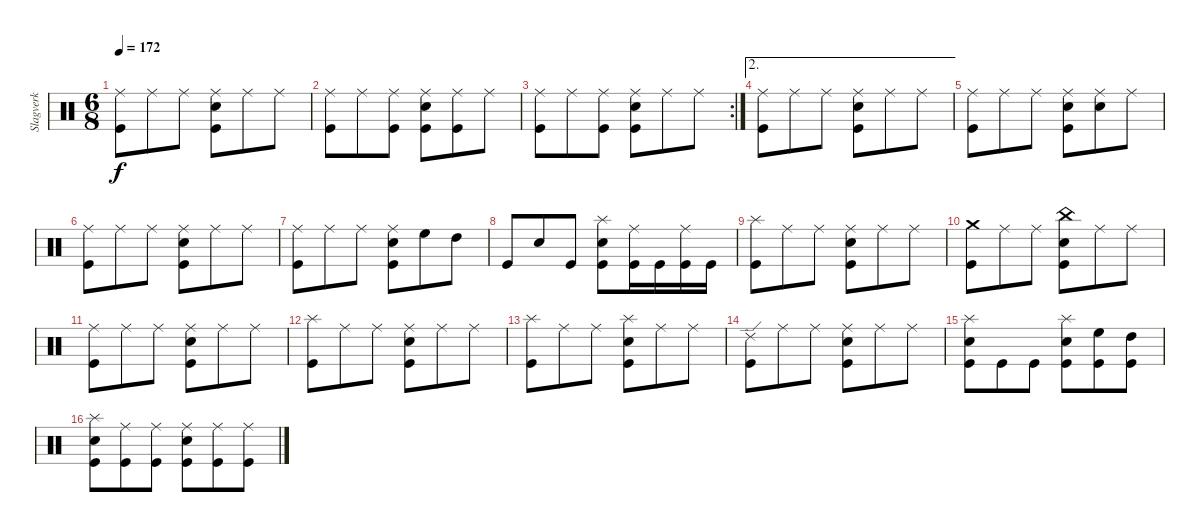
\track ("Slagverk" "Slagverk") {instrument percussion}
\staff {score}
\articulation defaults
\ts (6 8)
\tempo 172
\clef neutral
\ks c
("Ride (middle)" "Kick (hit)").8{dy f} "Ride (middle)".8 "Ride (middle)".8 ("Ride (middle)" "Snare (hit) 2" "Kick (hit)").8 "Ride (middle)".8 "Ride (middle)".8 |
("Ride (middle)" "Kick (hit)").8 "Ride (middle)".8 ("Ride (middle)" "Kick (hit)").8 ("Ride (middle)" "Snare (hit) 2" "Kick (hit)").8 ("Ride (middle)" "Kick (hit)").8 "Ride (middle)".8 |
\rc 2
("Ride (middle)" "Kick (hit)").8 "Ride (middle)".8 ("Ride (middle)" "Kick (hit)").8 ("Ride (middle)" "Snare (hit) 2" "Kick (hit)").8 "Ride (middle)".8 "Ride (middle)".8 |
\ae 2
("Ride (middle)" "Kick (hit)").8 "Ride (middle)".8 "Ride (middle)".8 ("Ride (middle)" "Snare (hit) 2" "Kick (hit)").8 "Ride (middle)".8 "Ride (middle)".8 |
("Ride (middle)" "Kick (hit)").8 "Ride (middle)".8 "Ride (middle)".8 ("Ride (middle)" "Snare (hit) 2" "Kick (hit)").8 ("Ride (middle)" "Snare (hit) 2").8 "Ride (middle)".8 |
("Ride (middle)" "Kick (hit)").8 "Ride (middle)".8 "Ride (middle)".8 ("Ride (middle)" "Snare (hit) 2" "Kick (hit)").8 "Ride (middle)".8 "Ride (middle)".8 |
("Ride (middle)" "Kick (hit)").8 "Ride (middle)".8 "Ride (middle)".8 ("Ride (middle)" "Snare (hit) 2" "Kick (hit)").8 "High Floor Tom (hit)".8 "High Tom (hit)".8 |
"Kick (hit)".8 "Snare (hit) 2".8 "Kick (hit)".8 ("Splash (hit)" "Snare (hit) 2" "Kick (hit)").8 ("Ride (middle)" "Kick (hit)").16 "Kick (hit)".16 ("Ride (middle)" "Kick (hit)").16 "Kick (hit)".16 |
("Splash (hit)" "Kick (hit)").8 "Ride (middle)".8 "Ride (middle)".8 ("Ride (middle)" "Snare (hit) 2" "Kick (hit)").8 "Ride (middle)".8 "Ride (middle)".8 |
("Crash medium (hit)" "Kick (hit)").8 "Ride (middle)".8 "Ride (middle)".8 ("China (hit)" "Snare (hit) 2" "Kick (hit)").8 "Ride (middle)".8 "Ride (middle)".8 |
("Ride (middle)" "Kick (hit)").8 "Ride (middle)".8 "Ride (middle)".8 ("Ride (middle)" "Snare (hit) 2" "Kick (hit)").8 "Ride (middle)".8 "Ride (middle)".8 |
("Splash (hit)" "Kick (hit)").8 "Ride (middle)".8 "Ride (middle)".8 ("Ride (middle)" "Snare (hit) 2" "Kick (hit)").8 "Ride (middle)".8 "Ride (middle)".8 |
("Splash (hit)" "Kick (hit)").8 "Ride (middle)".8 "Ride (middle)".8 ("Splash (hit)" "Snare (hit) 2" "Kick (hit)").8 "Ride (middle)".8 "Ride (middle)".8 |
("Ride (edge) 2" "Kick (hit)").8 "Ride (middle)".8 "Ride (middle)".8 ("Ride (middle)" "Snare (hit) 2" "Kick (hit)").8 "Ride (middle)".8 "Ride (middle)".8 |
("Splash (hit)" "Snare (hit) 2" "Kick (hit)").8 "Kick (hit)".8 "Kick (hit)".8 ("Splash (hit)" "Snare (hit) 2" "Kick (hit)").8 ("High Floor Tom (hit)" "Kick (hit)").8 ("High Tom (hit)" "Kick (hit)").8 |
("Splash (hit)" "Snare (hit) 2" "Kick (hit)").8 ("Ride (middle)" "Kick (hit)").8 ("Ride (middle)" "Kick (hit)").8 ("Ride (middle)" "Snare (hit) 2" "Kick (hit)").8 ("Ride (middle)" "Kick (hit)").8 ("Ride (middle)" "Kick (hit)").8
